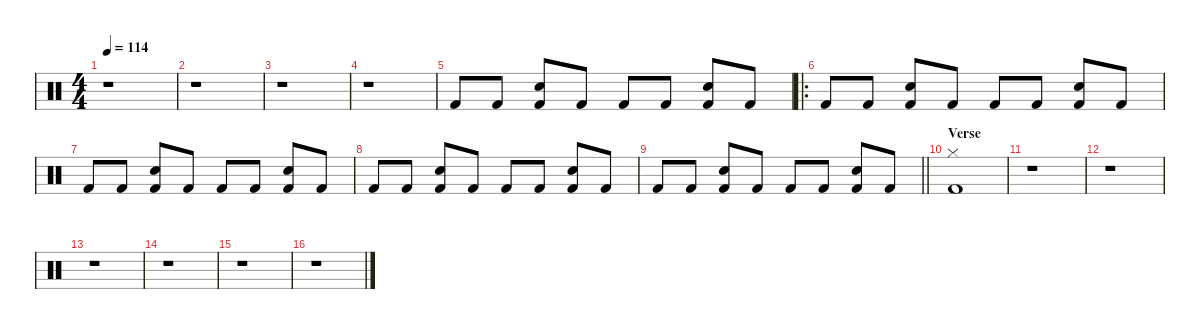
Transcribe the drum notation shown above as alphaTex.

\defaultSystemsLayout 4
\hideDynamics
\bracketExtendMode nobrackets
\singleTrackTrackNamePolicy hidden
\multiTrackTrackNamePolicy hidden
\firstSystemTrackNameMode fullname
\firstSystemTrackNameOrientation horizontal
\otherSystemsTrackNameOrientation horizontal
\track ("Percussion" "drm.") {defaultSystemsLayout 4 instrument percussion}
\staff {score}
\articulation defaults
\ts (4 4)
\beaming (8 2 2 2 2)
\tempo 114
\clef neutral
\ks c
r.1{dy fff beam Down} |
r.1{beam Down} |
r.1{beam Down} |
r.1{beam Down} |
"Kick (hit) 2".8{beam Up} "Kick (hit) 2".8{beam Up} ("Snare (hit) 2" "Kick (hit) 2").8{dy mf beam Up} "Kick (hit) 2".8{dy fff beam Up} "Kick (hit) 2".8{beam Up} "Kick (hit) 2".8{beam Up} ("Snare (hit) 2" "Kick (hit) 2").8{dy mf beam Up} "Kick (hit) 2".8{dy fff beam Up} |
\ro "Kick (hit) 2".8{beam Up} "Kick (hit) 2".8{beam Up}
("Snare (hit) 2" "Kick (hit) 2").8{dy mf beam Up} "Kick (hit) 2".8{dy fff beam Up} "Kick (hit) 2".8{beam Up} "Kick (hit) 2".8{beam Up} ("Snare (hit) 2" "Kick (hit) 2").8{dy mf beam Up} "Kick (hit) 2".8{dy fff beam Up} |
"Kick (hit) 2".8{beam Up} "Kick (hit) 2".8{beam Up} ("Snare (hit) 2" "Kick (hit) 2").8{dy mf beam Up} "Kick (hit) 2".8{dy fff beam Up} "Kick (hit) 2".8{beam Up} "Kick (hit) 2".8{beam Up} ("Snare (hit) 2" "Kick (hit) 2").8{dy mf beam Up} "Kick (hit) 2".8{dy fff beam Up} |
"Kick (hit) 2".8{beam Up} "Kick (hit) 2".8{beam Up} ("Snare (hit) 2" "Kick (hit) 2").8{dy mf beam Up} "Kick (hit) 2".8{dy fff beam Up} "Kick (hit) 2".8{beam Up} "Kick (hit) 2".8{beam Up} ("Snare (hit) 2" "Kick (hit) 2").8{dy mf beam Up} "Kick (hit) 2".8{dy fff beam Up} |
\barLineRight lightlight "Kick (hit) 2".8{beam Up} "Kick (hit) 2".8{beam Up}
("Snare (hit) 2" "Kick (hit) 2").8{dy mf beam Up} "Kick (hit) 2".8{dy fff beam Up} "Kick (hit) 2".8{beam Up} "Kick (hit) 2".8{beam Up} ("Snare (hit) 2" "Kick (hit) 2").8{dy mf beam Up} "Kick (hit) 2".8{dy fff beam Up} |
\section ("" "Verse")
("Hi-Hat (closed)" "Kick (hit) 2").1{beam Down} |
r.1{beam Down} |
r.1{beam Down} |
r.1{beam Down} |
r.1{beam Down} |
r.1{beam Down} |
r.1{beam Down}
